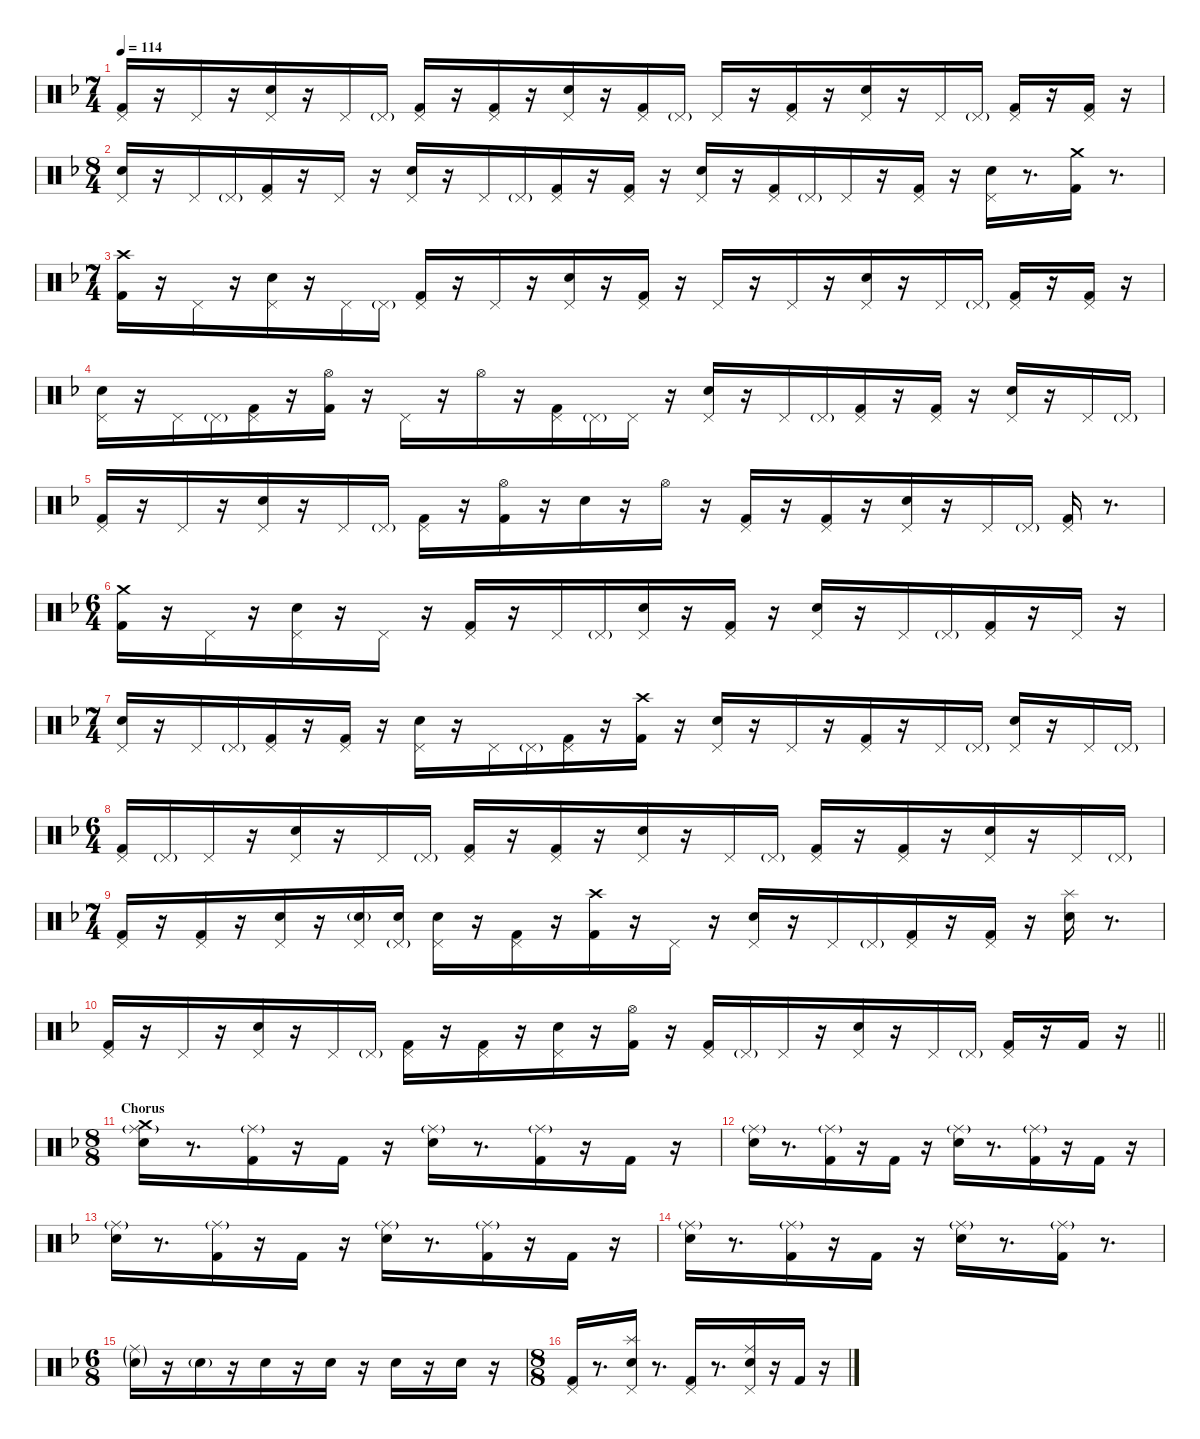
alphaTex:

\defaultSystemsLayout 4
\hideDynamics
\bracketExtendMode nobrackets
\singleTrackTrackNamePolicy hidden
\multiTrackTrackNamePolicy hidden
\firstSystemTrackNameMode fullname
\otherSystemsTrackNameOrientation horizontal
\track ("Drums" "drm.") {instrument percussion}
\staff {score}
\articulation defaults
\ts (7 4)
\beaming (8 4 4 4 4)
\tempo 114
\clef neutral
\ks dminor
("Pedal Hi-Hat (hit)"{acc forcenatural} "Kick (hit) 2"{acc forcenatural}).16{dy f beam Up} r.16{beam Up} "Pedal Hi-Hat (hit)"{acc forcenatural}.16{beam Up} r.16{beam Up} ("Pedal Hi-Hat (hit)"{acc forcenatural} "Snare (hit) 2"{acc forcenatural}).16{beam Up} r.16{beam Up} "Pedal Hi-Hat (hit)"{acc forcenatural}.16{beam Up} "Pedal Hi-Hat (hit)"{g acc forcenatural}.16{dy mf beam Up} ("Pedal Hi-Hat (hit)"{acc forcenatural} "Kick (hit) 2"{acc forcenatural}).16{dy f beam Up} r.16{beam Up} ("Pedal Hi-Hat (hit)"{acc forcenatural} "Kick (hit) 2"{acc forcenatural}).16{beam Up} r.16{beam Up} ("Pedal Hi-Hat (hit)"{acc forcenatural} "Snare (hit) 2"{acc forcenatural}).16{beam Up} r.16{beam Up} ("Pedal Hi-Hat (hit)"{acc forcenatural} "Kick (hit) 2"{acc forcenatural}).16{beam Up} "Pedal Hi-Hat (hit)"{g acc forcenatural}.16{dy mf beam Up} "Pedal Hi-Hat (hit)"{acc forcenatural}.16{dy f beam Up} r.16{beam Up} ("Pedal Hi-Hat (hit)"{acc forcenatural} "Kick (hit) 2"{acc forcenatural}).16{beam Up} r.16{beam Up} ("Pedal Hi-Hat (hit)"{acc forcenatural} "Snare (hit) 2"{acc forcenatural}).16{beam Up} r.16{beam Up} "Pedal Hi-Hat (hit)"{acc forcenatural}.16{beam Up} "Pedal Hi-Hat (hit)"{g acc forcenatural}.16{dy mf beam Up} ("Pedal Hi-Hat (hit)"{acc forcenatural} "Kick (hit) 2"{acc forcenatural}).16{dy f beam Up} r.16{beam Up} ("Pedal Hi-Hat (hit)"{acc forcenatural} "Kick (hit) 2"{acc forcenatural}).16{beam Up} r.16{beam Up} |
\ts (8 4)
\beaming (8 4 4 4 4)
("Pedal Hi-Hat (hit)"{acc forcenatural} "Snare (hit) 2"{acc forcenatural}).16{beam Up} r.16{beam Up} "Pedal Hi-Hat (hit)"{acc forcenatural}.16{beam Up} "Pedal Hi-Hat (hit)"{g acc forcenatural}.16{dy mf beam Up} ("Pedal Hi-Hat (hit)"{acc forcenatural} "Kick (hit) 2"{acc forcenatural}).16{dy f beam Up} r.16{beam Up} "Pedal Hi-Hat (hit)"{acc forcenatural}.16{beam Up} r.16{beam Up} ("Pedal Hi-Hat (hit)"{acc forcenatural} "Snare (hit) 2"{acc forcenatural}).16{beam Up} r.16{beam Up} "Pedal Hi-Hat (hit)"{acc forcenatural}.16{beam Up} "Pedal Hi-Hat (hit)"{g acc forcenatural}.16{dy mf beam Up} ("Pedal Hi-Hat (hit)"{acc forcenatural} "Kick (hit) 2"{acc forcenatural}).16{dy f beam Up} r.16{beam Up} ("Pedal Hi-Hat (hit)"{acc forcenatural} "Kick (hit) 2"{acc forcenatural}).16{beam Up} r.16{beam Up} ("Pedal Hi-Hat (hit)"{acc forcenatural} "Snare (hit) 2"{acc forcenatural}).16{beam Up} r.16{beam Up} ("Pedal Hi-Hat (hit)"{acc forcenatural} "Kick (hit) 2"{acc forcenatural}).16{beam Up} "Pedal Hi-Hat (hit)"{g acc forcenatural}.16{dy mf beam Up} "Pedal Hi-Hat (hit)"{acc forcenatural}.16{dy f beam Up} r.16{beam Up} ("Pedal Hi-Hat (hit)"{acc forcenatural} "Kick (hit) 2"{acc forcenatural}).16{beam Up} r.16{beam Up} ("Pedal Hi-Hat (hit)"{acc forcenatural} "Snare (hit) 2"{acc forcenatural}).16{beam Down} r.8{d beam Down} ("Crash medium (hit)"{acc forcenatural} "Kick (hit) 2"{acc forcenatural}).16{beam Down} r.8{d beam Down} |
\ts (7 4)
\beaming (8 4 4 4 4)
("Crash high (hit)"{acc forcenatural} "Kick (hit) 2"{acc forcenatural}).16{beam Down} r.16{beam Down} "Pedal Hi-Hat (hit)"{acc forcenatural}.16{beam Down} r.16{beam Down} ("Pedal Hi-Hat (hit)"{acc forcenatural} "Snare (hit) 2"{acc forcenatural}).16{beam Down} r.16{beam Down} "Pedal Hi-Hat (hit)"{acc forcenatural}.16{beam Down} "Pedal Hi-Hat (hit)"{g acc forcenatural}.16{dy mf beam Down} ("Pedal Hi-Hat (hit)"{acc forcenatural} "Kick (hit) 2"{acc forcenatural}).16{dy f beam Up} r.16{beam Up} "Pedal Hi-Hat (hit)"{acc forcenatural}.16{beam Up} r.16{beam Up} ("Pedal Hi-Hat (hit)"{acc forcenatural} "Snare (hit) 2"{acc forcenatural}).16{beam Up} r.16{beam Up} ("Pedal Hi-Hat (hit)"{acc forcenatural} "Kick (hit) 2"{acc forcenatural}).16{beam Up} r.16{beam Up} "Pedal Hi-Hat (hit)"{acc forcenatural}.16{beam Up} r.16{beam Up} "Pedal Hi-Hat (hit)"{acc forcenatural}.16{beam Up} r.16{beam Up} ("Pedal Hi-Hat (hit)"{acc forcenatural} "Snare (hit) 2"{acc forcenatural}).16{beam Up} r.16{beam Up} "Pedal Hi-Hat (hit)"{acc forcenatural}.16{beam Up} "Pedal Hi-Hat (hit)"{g acc forcenatural}.16{dy mf beam Up} ("Pedal Hi-Hat (hit)"{acc forcenatural} "Kick (hit) 2"{acc forcenatural}).16{dy f beam Up} r.16{beam Up} ("Pedal Hi-Hat (hit)"{acc forcenatural} "Kick (hit) 2"{acc forcenatural}).16{beam Up} r.16{beam Up} |
("Pedal Hi-Hat (hit)"{acc forcenatural} "Snare (hit) 2"{acc forcenatural}).16{beam Down} r.16{beam Down} "Pedal Hi-Hat (hit)"{acc forcenatural}.16{beam Down} "Pedal Hi-Hat (hit)"{g acc forcenatural}.16{dy mf beam Down} ("Pedal Hi-Hat (hit)"{acc forcenatural} "Kick (hit) 2"{acc forcenatural}).16{dy f beam Down} r.16{beam Down} ("Hi-Hat (open)"{acc forcenatural} "Kick (hit) 2"{acc forcenatural}).16{beam Down} r.16{beam Down} "Pedal Hi-Hat (hit)"{acc forcenatural}.16{beam Down} r.16{beam Down} "Hi-Hat (open)"{acc forcenatural}.16{beam Down} r.16{beam Down} ("Pedal Hi-Hat (hit)"{acc forcenatural} "Kick (hit) 2"{acc forcenatural}).16{beam Down} "Pedal Hi-Hat (hit)"{g acc forcenatural}.16{dy mf beam Down} "Pedal Hi-Hat (hit)"{acc forcenatural}.16{dy f beam Down} r.16{beam Down} ("Pedal Hi-Hat (hit)"{acc forcenatural} "Snare (hit) 2"{acc forcenatural}).16{beam Up} r.16{beam Up} "Pedal Hi-Hat (hit)"{acc forcenatural}.16{beam Up} "Pedal Hi-Hat (hit)"{g acc forcenatural}.16{dy mf beam Up} ("Pedal Hi-Hat (hit)"{acc forcenatural} "Kick (hit) 2"{acc forcenatural}).16{dy f beam Up} r.16{beam Up} ("Pedal Hi-Hat (hit)"{acc forcenatural} "Kick (hit) 2"{acc forcenatural}).16{beam Up} r.16{beam Up} ("Pedal Hi-Hat (hit)"{acc forcenatural} "Snare (hit) 2"{acc forcenatural}).16{beam Up} r.16{beam Up} "Pedal Hi-Hat (hit)"{acc forcenatural}.16{beam Up} "Pedal Hi-Hat (hit)"{g acc forcenatural}.16{dy mf beam Up} |
("Pedal Hi-Hat (hit)"{acc forcenatural} "Kick (hit) 2"{acc forcenatural}).16{dy f beam Up} r.16{beam Up} "Pedal Hi-Hat (hit)"{acc forcenatural}.16{beam Up} r.16{beam Up} ("Pedal Hi-Hat (hit)"{acc forcenatural} "Snare (hit) 2"{acc forcenatural}).16{beam Up} r.16{beam Up} "Pedal Hi-Hat (hit)"{acc forcenatural}.16{beam Up} "Pedal Hi-Hat (hit)"{g acc forcenatural}.16{dy mf beam Up} ("Pedal Hi-Hat (hit)"{acc forcenatural} "Kick (hit) 2"{acc forcenatural}).16{dy f beam Down} r.16{beam Down} ("Hi-Hat (open)"{acc forcenatural} "Kick (hit) 2"{acc forcenatural}).16{beam Down} r.16{beam Down} "Snare (hit) 2"{acc forcenatural}.16{beam Down} r.16{beam Down} "Hi-Hat (open)"{acc forcenatural}.16{beam Down} r.16{beam Down} ("Pedal Hi-Hat (hit)"{acc forcenatural} "Kick (hit) 2"{acc forcenatural}).16{beam Up} r.16{beam Up} ("Pedal Hi-Hat (hit)"{acc forcenatural} "Kick (hit) 2"{acc forcenatural}).16{beam Up} r.16{beam Up} ("Pedal Hi-Hat (hit)"{acc forcenatural} "Snare (hit) 2"{acc forcenatural}).16{beam Up} r.16{beam Up} "Pedal Hi-Hat (hit)"{acc forcenatural}.16{beam Up} "Pedal Hi-Hat (hit)"{g acc forcenatural}.16{dy mf beam Up} ("Pedal Hi-Hat (hit)"{acc forcenatural} "Kick (hit) 2"{acc forcenatural}).16{dy f beam Up} r.8{d beam Up} |
\ts (6 4)
\beaming (8 4 4 4 4)
("Crash medium (hit)"{acc forcenatural} "Kick (hit) 2"{acc forcenatural}).16{beam Down} r.16{beam Down} "Pedal Hi-Hat (hit)"{acc forcenatural}.16{beam Down} r.16{beam Down} ("Pedal Hi-Hat (hit)"{acc forcenatural} "Snare (hit) 2"{acc forcenatural}).16{beam Down} r.16{beam Down} "Pedal Hi-Hat (hit)"{acc forcenatural}.16{beam Down} r.16{beam Down} ("Pedal Hi-Hat (hit)"{acc forcenatural} "Kick (hit) 2"{acc forcenatural}).16{beam Up} r.16{beam Up} "Pedal Hi-Hat (hit)"{acc forcenatural}.16{beam Up} "Pedal Hi-Hat (hit)"{g acc forcenatural}.16{dy mf beam Up} ("Pedal Hi-Hat (hit)"{acc forcenatural} "Snare (hit) 2"{acc forcenatural}).16{dy f beam Up} r.16{beam Up} ("Pedal Hi-Hat (hit)"{acc forcenatural} "Kick (hit) 2"{acc forcenatural}).16{beam Up} r.16{beam Up} ("Pedal Hi-Hat (hit)"{acc forcenatural} "Snare (hit) 2"{acc forcenatural}).16{beam Up} r.16{beam Up} "Pedal Hi-Hat (hit)"{acc forcenatural}.16{beam Up} "Pedal Hi-Hat (hit)"{g acc forcenatural}.16{dy mf beam Up} ("Pedal Hi-Hat (hit)"{acc forcenatural} "Kick (hit) 2"{acc forcenatural}).16{dy f beam Up} r.16{beam Up} "Pedal Hi-Hat (hit)"{acc forcenatural}.16{beam Up} r.16{beam Up} |
\ts (7 4)
\beaming (8 4 4 4 4)
("Pedal Hi-Hat (hit)"{acc forcenatural} "Snare (hit) 2"{acc forcenatural}).16{beam Up} r.16{beam Up} "Pedal Hi-Hat (hit)"{acc forcenatural}.16{beam Up} "Pedal Hi-Hat (hit)"{g acc forcenatural}.16{dy mf beam Up} ("Pedal Hi-Hat (hit)"{acc forcenatural} "Kick (hit) 2"{acc forcenatural}).16{dy f beam Up} r.16{beam Up} ("Pedal Hi-Hat (hit)"{acc forcenatural} "Kick (hit) 2"{acc forcenatural}).16{beam Up} r.16{beam Up} ("Pedal Hi-Hat (hit)"{acc forcenatural} "Snare (hit) 2"{acc forcenatural}).16{beam Down} r.16{beam Down} "Pedal Hi-Hat (hit)"{acc forcenatural}.16{beam Down} "Pedal Hi-Hat (hit)"{g acc forcenatural}.16{dy mf beam Down} ("Pedal Hi-Hat (hit)"{acc forcenatural} "Kick (hit) 2"{acc forcenatural}).16{dy f beam Down} r.16{beam Down} ("Crash high (hit)"{acc forcenatural} "Kick (hit) 2"{acc forcenatural}).16{beam Down} r.16{beam Down} ("Pedal Hi-Hat (hit)"{acc forcenatural} "Snare (hit) 2"{acc forcenatural}).16{beam Up} r.16{beam Up} "Pedal Hi-Hat (hit)"{acc forcenatural}.16{beam Up} r.16{beam Up} ("Pedal Hi-Hat (hit)"{acc forcenatural} "Kick (hit) 2"{acc forcenatural}).16{beam Up} r.16{beam Up} "Pedal Hi-Hat (hit)"{acc forcenatural}.16{beam Up} "Pedal Hi-Hat (hit)"{g acc forcenatural}.16{dy mf beam Up} ("Pedal Hi-Hat (hit)"{acc forcenatural} "Snare (hit) 2"{acc forcenatural}).16{dy f beam Up} r.16{beam Up} "Pedal Hi-Hat (hit)"{acc forcenatural}.16{beam Up} "Pedal Hi-Hat (hit)"{g acc forcenatural}.16{dy mf beam Up} |
\ts (6 4)
\beaming (8 4 4 4 4)
("Pedal Hi-Hat (hit)"{acc forcenatural} "Kick (hit) 2"{acc forcenatural}).16{dy f beam Up} "Pedal Hi-Hat (hit)"{g acc forcenatural}.16{dy mf beam Up} "Pedal Hi-Hat (hit)"{acc forcenatural}.16{dy f beam Up} r.16{beam Up} ("Pedal Hi-Hat (hit)"{acc forcenatural} "Snare (hit) 2"{acc forcenatural}).16{beam Up} r.16{beam Up} "Pedal Hi-Hat (hit)"{acc forcenatural}.16{beam Up} "Pedal Hi-Hat (hit)"{g acc forcenatural}.16{dy mf beam Up} ("Pedal Hi-Hat (hit)"{acc forcenatural} "Kick (hit) 2"{acc forcenatural}).16{dy f beam Up} r.16{beam Up} ("Pedal Hi-Hat (hit)"{acc forcenatural} "Kick (hit) 2"{acc forcenatural}).16{beam Up} r.16{beam Up} ("Pedal Hi-Hat (hit)"{acc forcenatural} "Snare (hit) 2"{acc forcenatural}).16{beam Up} r.16{beam Up} "Pedal Hi-Hat (hit)"{acc forcenatural}.16{beam Up} "Pedal Hi-Hat (hit)"{g acc forcenatural}.16{dy mf beam Up} ("Pedal Hi-Hat (hit)"{acc forcenatural} "Kick (hit) 2"{acc forcenatural}).16{dy f beam Up} r.16{beam Up} ("Pedal Hi-Hat (hit)"{acc forcenatural} "Kick (hit) 2"{acc forcenatural}).16{beam Up} r.16{beam Up} ("Pedal Hi-Hat (hit)"{acc forcenatural} "Snare (hit) 2"{acc forcenatural}).16{beam Up} r.16{beam Up} "Pedal Hi-Hat (hit)"{acc forcenatural}.16{beam Up} "Pedal Hi-Hat (hit)"{g acc forcenatural}.16{dy mf beam Up} |
\ts (7 4)
\beaming (8 4 4 4 4)
("Pedal Hi-Hat (hit)"{acc forcenatural} "Kick (hit) 2"{acc forcenatural}).16{dy f beam Up} r.16{beam Up} ("Pedal Hi-Hat (hit)"{acc forcenatural} "Kick (hit) 2"{acc forcenatural}).16{beam Up} r.16{beam Up} ("Pedal Hi-Hat (hit)"{acc forcenatural} "Snare (hit) 2"{acc forcenatural}).16{beam Up} r.16{beam Up} ("Pedal Hi-Hat (hit)"{acc forcenatural} "Snare (hit) 2"{g acc forcenatural}).16{beam Up} ("Pedal Hi-Hat (hit)"{g acc forcenatural} "Snare (hit) 2"{acc forcenatural}).16{beam Up} ("Pedal Hi-Hat (hit)"{acc forcenatural} "Snare (hit) 2"{acc forcenatural}).16{beam Down} r.16{beam Down} ("Pedal Hi-Hat (hit)"{acc forcenatural} "Kick (hit) 2"{acc forcenatural}).16{beam Down} r.16{beam Down} ("Crash high (hit)"{acc forcenatural} "Kick (hit) 2"{acc forcenatural}).16{beam Down} r.16{beam Down} "Pedal Hi-Hat (hit)"{acc forcenatural}.16{beam Down} r.16{beam Down} ("Pedal Hi-Hat (hit)"{acc forcenatural} "Snare (hit) 2"{acc forcenatural}).16{beam Up} r.16{beam Up} "Pedal Hi-Hat (hit)"{acc forcenatural}.16{beam Up} "Pedal Hi-Hat (hit)"{g acc forcenatural}.16{dy mf beam Up} ("Pedal Hi-Hat (hit)"{acc forcenatural} "Kick (hit) 2"{acc forcenatural}).16{dy f beam Up} r.16{beam Up} ("Pedal Hi-Hat (hit)"{acc forcenatural} "Kick (hit) 2"{acc forcenatural}).16{beam Up} r.16{beam Up} ("Splash (hit)"{acc forcenatural} "Snare (hit) 2"{acc forcenatural}).16{beam Down} r.8{d beam Down} |
\barLineRight lightlight
("Pedal Hi-Hat (hit)"{acc forcenatural} "Kick (hit) 2"{acc forcenatural}).16{beam Up} r.16{beam Up} "Pedal Hi-Hat (hit)"{acc forcenatural}.16{beam Up} r.16{beam Up} ("Pedal Hi-Hat (hit)"{acc forcenatural} "Snare (hit) 2"{acc forcenatural}).16{beam Up} r.16{beam Up} "Pedal Hi-Hat (hit)"{acc forcenatural}.16{beam Up} "Pedal Hi-Hat (hit)"{g acc forcenatural}.16{dy mf beam Up} ("Pedal Hi-Hat (hit)"{acc forcenatural} "Kick (hit) 2"{acc forcenatural}).16{dy f beam Down} r.16{beam Down} ("Pedal Hi-Hat (hit)"{acc forcenatural} "Kick (hit) 2"{acc forcenatural}).16{beam Down} r.16{beam Down} ("Pedal Hi-Hat (hit)"{acc forcenatural} "Snare (hit) 2"{acc forcenatural}).16{beam Down} r.16{beam Down} ("Hi-Hat (open)"{acc forcenatural} "Kick (hit) 2"{acc forcenatural}).16{beam Down} r.16{beam Down} ("Pedal Hi-Hat (hit)"{acc forcenatural} "Kick (hit) 2"{acc forcenatural}).16{beam Up} "Pedal Hi-Hat (hit)"{g acc forcenatural}.16{dy mf beam Up} "Pedal Hi-Hat (hit)"{acc forcenatural}.16{dy f beam Up} r.16{beam Up} ("Pedal Hi-Hat (hit)"{acc forcenatural} "Snare (hit) 2"{acc forcenatural}).16{beam Up} r.16{beam Up} "Pedal Hi-Hat (hit)"{acc forcenatural}.16{beam Up} "Pedal Hi-Hat (hit)"{g acc forcenatural}.16{dy mf beam Up} ("Pedal Hi-Hat (hit)"{acc forcenatural} "Kick (hit) 2"{acc forcenatural}).16{dy f beam Up} r.16{beam Up} "Kick (hit) 2"{acc forcenatural}.16{beam Up} r.16{beam Up} |
\ts (8 8)
\beaming (8 4 4 4 4)
\section ("" "Chorus")
("Crash medium (hit)"{acc forcenatural} "Ride (middle)"{g acc forcenatural} "Snare (hit) 2"{acc forcenatural}).16{beam Down} r.8{d beam Down} ("Ride (middle)"{g acc forcenatural} "Kick (hit) 2"{acc forcenatural}).16{beam Down} r.16{beam Down} "Kick (hit) 2"{acc forcenatural}.16{beam Down} r.16{beam Down} ("Ride (middle)"{g acc forcenatural} "Snare (hit) 2"{acc forcenatural}).16{beam Down} r.8{d beam Down} ("Ride (middle)"{g acc forcenatural} "Kick (hit) 2"{acc forcenatural}).16{beam Down} r.16{beam Down} "Kick (hit) 2"{acc forcenatural}.16{beam Down} r.16{beam Down} |
("Ride (middle)"{g acc forcenatural} "Snare (hit) 2"{acc forcenatural}).16{beam Down} r.8{d beam Down} ("Ride (middle)"{g acc forcenatural} "Kick (hit) 2"{acc forcenatural}).16{beam Down} r.16{beam Down} "Kick (hit) 2"{acc forcenatural}.16{beam Down} r.16{beam Down} ("Ride (middle)"{g acc forcenatural} "Snare (hit) 2"{acc forcenatural}).16{beam Down} r.8{d beam Down} ("Ride (middle)"{g acc forcenatural} "Kick (hit) 2"{acc forcenatural}).16{beam Down} r.16{beam Down} "Kick (hit) 2"{acc forcenatural}.16{beam Down} r.16{beam Down} |
("Ride (middle)"{g acc forcenatural} "Snare (hit) 2"{acc forcenatural}).16{beam Down} r.8{d beam Down} ("Ride (middle)"{g acc forcenatural} "Kick (hit) 2"{acc forcenatural}).16{beam Down} r.16{beam Down} "Kick (hit) 2"{acc forcenatural}.16{beam Down} r.16{beam Down} ("Ride (middle)"{g acc forcenatural} "Snare (hit) 2"{acc forcenatural}).16{beam Down} r.8{d beam Down} ("Ride (middle)"{g acc forcenatural} "Kick (hit) 2"{acc forcenatural}).16{beam Down} r.16{beam Down} "Kick (hit) 2"{acc forcenatural}.16{beam Down} r.16{beam Down} |
("Ride (middle)"{g acc forcenatural} "Snare (hit) 2"{acc forcenatural}).16{beam Down} r.8{d beam Down} ("Ride (middle)"{g acc forcenatural} "Kick (hit) 2"{acc forcenatural}).16{beam Down} r.16{beam Down} "Kick (hit) 2"{acc forcenatural}.16{beam Down} r.16{beam Down} ("Ride (middle)"{g acc forcenatural} "Snare (hit) 2"{acc forcenatural}).16{beam Down} r.8{d beam Down} ("Ride (middle)"{g acc forcenatural} "Kick (hit) 2"{acc forcenatural}).16{beam Down} r.8{d beam Down} |
\ts (6 8)
\beaming (8 4 4 4 4)
("Ride (middle)"{g acc forcenatural} "Snare (hit) 2"{g acc forcenatural}).16{dy pp beam Down} r.16{beam Down} "Snare (hit) 2"{g acc forcenatural}.16{dy mf beam Down} r.16{beam Down} "Snare (hit) 2"{acc forcenatural}.16{dy f beam Down} r.16{beam Down} "Snare (hit) 2"{acc forcenatural}.16{beam Down} r.16{beam Down} "Snare (hit) 2"{acc forcenatural}.16{beam Down} r.16{beam Down} "Snare (hit) 2"{acc forcenatural}.16{beam Down} r.16{beam Down} |
\ts (8 8)
\beaming (8 4 4 4 4)
("Pedal Hi-Hat (hit)"{acc forcenatural} "Kick (hit) 2"{acc forcenatural}).16{beam Up} r.8{d beam Up} ("Splash (hit)"{acc forcenatural} "Pedal Hi-Hat (hit)"{acc forcenatural} "Snare (hit) 2"{acc forcenatural}).16{beam Up} r.8{d beam Up} ("Pedal Hi-Hat (hit)"{acc forcenatural} "Kick (hit) 2"{acc forcenatural}).16{beam Up} r.8{d beam Up} ("Ride (middle)"{acc forcenatural} "Pedal Hi-Hat (hit)"{acc forcenatural} "Snare (hit) 2"{acc forcenatural}).16{beam Up} r.16{beam Up} "Kick (hit) 2"{acc forcenatural}.16{beam Up} r.16{beam Up}
